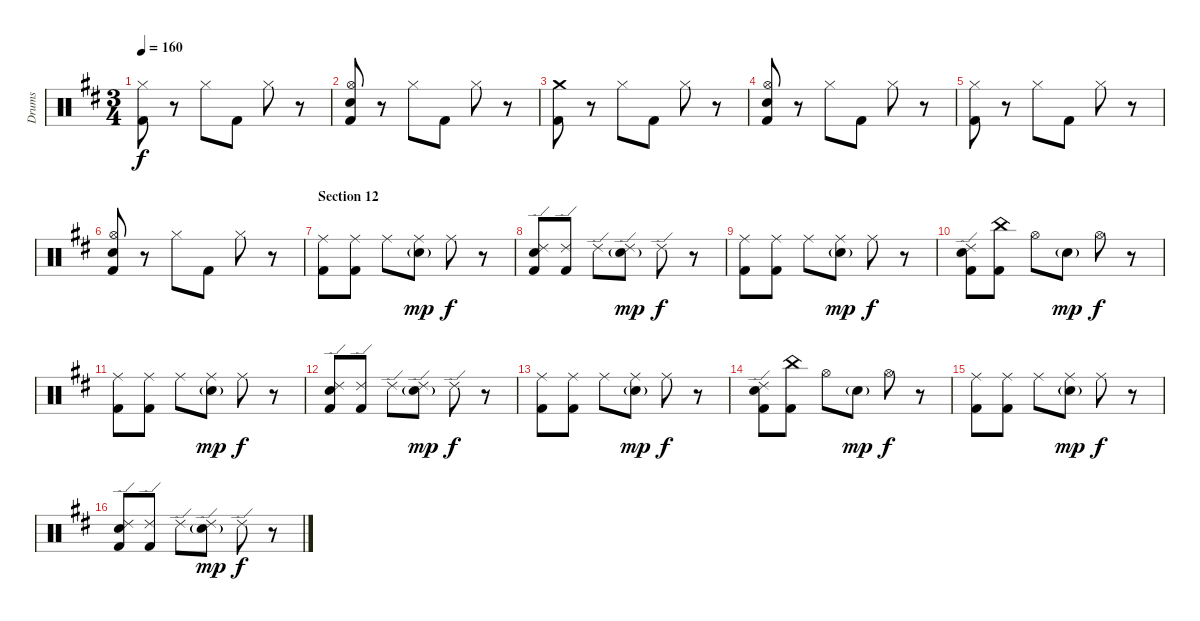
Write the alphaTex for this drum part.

\track ("Drums" "Drums") {instrument percussion}
\staff {score}
\articulation defaults
\ts (3 4)
\tempo 160
\clef neutral
\ks bminor
("Hi-Hat (closed)" "Kick (hit) 2").8{dy f} r.8 "Hi-Hat (closed)".8 "Kick (hit) 2".8 "Hi-Hat (closed)".8 r.8 |
("Hi-Hat (open)" "Snare (hit) 2" "Kick (hit) 2").8 r.8 "Hi-Hat (closed)".8 "Kick (hit) 2".8 "Hi-Hat (closed)".8 r.8 |
("Crash medium (hit)" "Kick (hit) 2").8 r.8 "Hi-Hat (closed)".8 "Kick (hit) 2".8 "Hi-Hat (closed)".8 r.8 |
("Hi-Hat (open)" "Snare (hit) 2" "Kick (hit) 2").8 r.8 "Hi-Hat (closed)".8 "Kick (hit) 2".8 "Hi-Hat (closed)".8 r.8 |
("Hi-Hat (closed)" "Kick (hit) 2").8 r.8 "Hi-Hat (closed)".8 "Kick (hit) 2".8 "Hi-Hat (closed)".8 r.8 |
("Hi-Hat (open)" "Snare (hit) 2" "Kick (hit) 2").8 r.8 "Hi-Hat (closed)".8 "Kick (hit) 2".8 "Hi-Hat (closed)".8 r.8 |
\section ("" "Section 12")
("Ride (middle)" "Kick (hit) 2").8 ("Ride (middle)" "Kick (hit) 2").8 "Ride (middle)".8 ("Ride (middle)" "Snare (hit) 2"{g}).8{dy mp} "Ride (middle)".8{dy f} r.8 |
("Ride (edge) 2" "Snare (hit) 2" "Kick (hit) 2").8 ("Ride (edge) 2" "Kick (hit) 2").8 "Ride (edge) 2".8 ("Ride (edge) 2" "Snare (hit) 2"{g}).8{dy mp} "Ride (edge) 2".8{dy f} r.8 |
("Ride (middle)" "Kick (hit) 2").8 ("Ride (middle)" "Kick (hit) 2").8 "Ride (middle)".8 ("Ride (middle)" "Snare (hit) 2"{g}).8{dy mp} "Ride (middle)".8{dy f} r.8 |
("Ride (edge) 2" "Snare (hit) 2" "Kick (hit) 2").8 ("China (hit)" "Kick (hit) 2").8 "Hi-Hat (open)".8 "Snare (hit) 2"{g}.8{dy mp} "Hi-Hat (open)".8{dy f} r.8 |
("Ride (middle)" "Kick (hit) 2").8 ("Ride (middle)" "Kick (hit) 2").8 "Ride (middle)".8 ("Ride (middle)" "Snare (hit) 2"{g}).8{dy mp} "Ride (middle)".8{dy f} r.8 |
("Ride (edge) 2" "Snare (hit) 2" "Kick (hit) 2").8 ("Ride (edge) 2" "Kick (hit) 2").8 "Ride (edge) 2".8 ("Ride (edge) 2" "Snare (hit) 2"{g}).8{dy mp} "Ride (edge) 2".8{dy f} r.8 |
("Ride (middle)" "Kick (hit) 2").8 ("Ride (middle)" "Kick (hit) 2").8 "Ride (middle)".8 ("Ride (middle)" "Snare (hit) 2"{g}).8{dy mp} "Ride (middle)".8{dy f} r.8 |
("Ride (edge) 2" "Snare (hit) 2" "Kick (hit) 2").8 ("China (hit)" "Kick (hit) 2").8 "Hi-Hat (open)".8 "Snare (hit) 2"{g}.8{dy mp} "Hi-Hat (open)".8{dy f} r.8 |
("Ride (middle)" "Kick (hit) 2").8 ("Ride (middle)" "Kick (hit) 2").8 "Ride (middle)".8 ("Ride (middle)" "Snare (hit) 2"{g}).8{dy mp} "Ride (middle)".8{dy f} r.8 |
("Ride (edge) 2" "Snare (hit) 2" "Kick (hit) 2").8 ("Ride (edge) 2" "Kick (hit) 2").8 "Ride (edge) 2".8 ("Ride (edge) 2" "Snare (hit) 2"{g}).8{dy mp} "Ride (edge) 2".8{dy f} r.8
